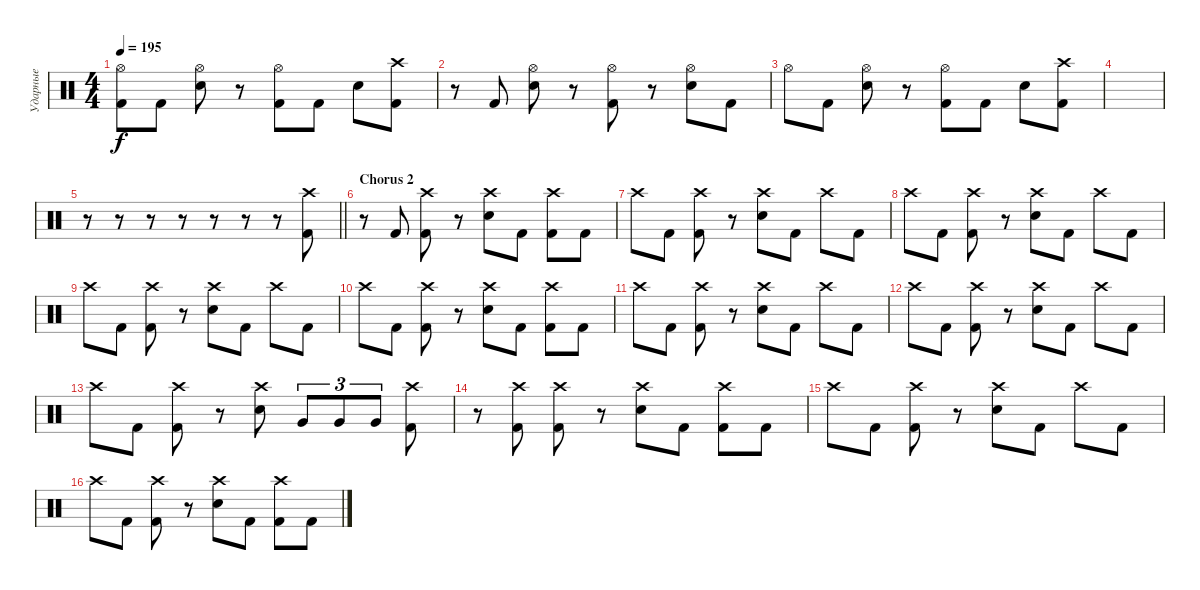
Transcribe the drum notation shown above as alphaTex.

\track ("Ударные" "Ударные") {instrument percussion}
\staff {score}
\articulation defaults
\ts (4 4)
\tempo 195
\clef neutral
\ks c
("Hi-Hat (open)" "Kick (hit) 2").8{dy f} "Kick (hit) 2".8 ("Hi-Hat (open)" "Electric Snare (hit)").8 r.8 ("Hi-Hat (open)" "Kick (hit) 2").8 "Kick (hit) 2".8 "Electric Snare (hit)".8 ("Crash high (hit)" "Kick (hit) 2").8 |
r.8 "Kick (hit) 2".8 ("Hi-Hat (open)" "Electric Snare (hit)").8 r.8 ("Hi-Hat (open)" "Kick (hit) 2").8 r.8 ("Hi-Hat (open)" "Electric Snare (hit)").8 "Kick (hit) 2".8 |
"Hi-Hat (open)".8 "Kick (hit) 2".8 ("Hi-Hat (open)" "Electric Snare (hit)").8 r.8 ("Hi-Hat (open)" "Kick (hit) 2").8 "Kick (hit) 2".8 "Electric Snare (hit)".8 ("Crash high (hit)" "Kick (hit) 2").8 |
|
\barLineRight lightlight
r.8 r.8 r.8 r.8 r.8 r.8 r.8 ("Crash high (hit)" "Kick (hit) 2").8 |
\section ("" "Chorus 2")
r.8 "Kick (hit) 2".8 ("Crash high (hit)" "Kick (hit) 2").8 r.8 ("Crash high (hit)" "Electric Snare (hit)").8 "Kick (hit) 2".8 ("Crash high (hit)" "Kick (hit) 2").8 "Kick (hit) 2".8 |
"Crash high (hit)".8 "Kick (hit) 2".8 ("Crash high (hit)" "Kick (hit) 2").8 r.8 ("Crash high (hit)" "Electric Snare (hit)").8 "Kick (hit) 2".8 "Crash high (hit)".8 "Kick (hit) 2".8 |
"Crash high (hit)".8 "Kick (hit) 2".8 ("Crash high (hit)" "Kick (hit) 2").8 r.8 ("Crash high (hit)" "Electric Snare (hit)").8 "Kick (hit) 2".8 "Crash high (hit)".8 "Kick (hit) 2".8 |
"Crash high (hit)".8 "Kick (hit) 2".8 ("Crash high (hit)" "Kick (hit) 2").8 r.8 ("Crash high (hit)" "Electric Snare (hit)").8 "Kick (hit) 2".8 "Crash high (hit)".8 "Kick (hit) 2".8 |
"Crash high (hit)".8 "Kick (hit) 2".8 ("Crash high (hit)" "Kick (hit) 2").8 r.8 ("Crash high (hit)" "Electric Snare (hit)").8 "Kick (hit) 2".8 ("Crash high (hit)" "Kick (hit) 2").8 "Kick (hit) 2".8 |
"Crash high (hit)".8 "Kick (hit) 2".8 ("Crash high (hit)" "Kick (hit) 2").8 r.8 ("Crash high (hit)" "Electric Snare (hit)").8 "Kick (hit) 2".8 "Crash high (hit)".8 "Kick (hit) 2".8 |
"Crash high (hit)".8 "Kick (hit) 2".8 ("Crash high (hit)" "Kick (hit) 2").8 r.8 ("Crash high (hit)" "Electric Snare (hit)").8 "Kick (hit) 2".8 "Crash high (hit)".8 "Kick (hit) 2".8 |
"Crash high (hit)".8 "Kick (hit) 2".8 ("Crash high (hit)" "Kick (hit) 2").8 r.8 ("Crash high (hit)" "Electric Snare (hit)").8 "Very Low Tom (hit)".8{tu (3 2)} "Very Low Tom (hit)".8{tu (3 2)} "Very Low Tom (hit)".8{tu (3 2)} ("Crash high (hit)" "Kick (hit) 2").8 |
r.8 ("Crash high (hit)" "Kick (hit) 2").8 ("Crash high (hit)" "Kick (hit) 2").8 r.8 ("Crash high (hit)" "Electric Snare (hit)").8 "Kick (hit) 2".8 ("Crash high (hit)" "Kick (hit) 2").8 "Kick (hit) 2".8 |
"Crash high (hit)".8 "Kick (hit) 2".8 ("Crash high (hit)" "Kick (hit) 2").8 r.8 ("Crash high (hit)" "Electric Snare (hit)").8 "Kick (hit) 2".8 "Crash high (hit)".8 "Kick (hit) 2".8 |
"Crash high (hit)".8 "Kick (hit) 2".8 ("Crash high (hit)" "Kick (hit) 2").8 r.8 ("Crash high (hit)" "Electric Snare (hit)").8 "Kick (hit) 2".8 ("Crash high (hit)" "Kick (hit) 2").8 "Kick (hit) 2".8
